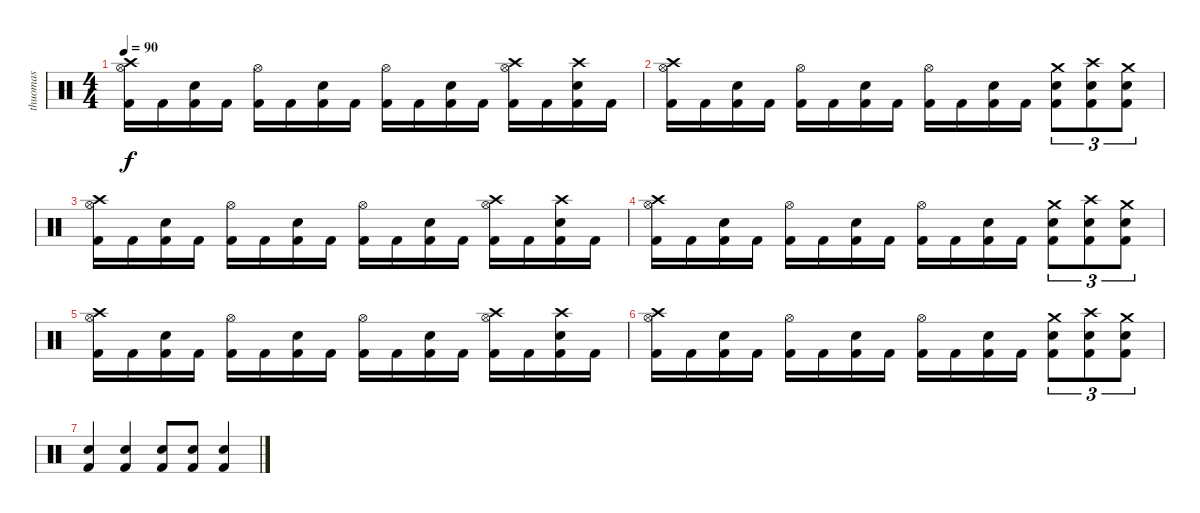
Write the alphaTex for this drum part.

\track ("thuomas" "thuomas") {instrument percussion}
\staff {score}
\articulation defaults
\ts (4 4)
\tempo 90
\clef neutral
\ks c
("Crash high (hit)" "Hi-Hat (open)" "Kick (hit) 2").16{dy f} "Kick (hit) 2".16 ("Snare (hit) 2" "Kick (hit) 2").16 "Kick (hit) 2".16 ("Hi-Hat (open)" "Kick (hit) 2").16 "Kick (hit) 2".16 ("Snare (hit) 2" "Kick (hit) 2").16 "Kick (hit) 2".16 ("Hi-Hat (open)" "Kick (hit) 2").16 "Kick (hit) 2".16 ("Snare (hit) 2" "Kick (hit) 2").16 "Kick (hit) 2".16 ("Crash high (hit)" "Hi-Hat (open)" "Kick (hit) 2").16 "Kick (hit) 2".16 ("Crash high (hit)" "Snare (hit) 2" "Kick (hit) 2").16 "Kick (hit) 2".16 |
("Crash high (hit)" "Hi-Hat (open)" "Kick (hit) 2").16 "Kick (hit) 2".16 ("Snare (hit) 2" "Kick (hit) 2").16 "Kick (hit) 2".16 ("Hi-Hat (open)" "Kick (hit) 2").16 "Kick (hit) 2".16 ("Snare (hit) 2" "Kick (hit) 2").16 "Kick (hit) 2".16 ("Hi-Hat (open)" "Kick (hit) 2").16 "Kick (hit) 2".16 ("Snare (hit) 2" "Kick (hit) 2").16 "Kick (hit) 2".16 ("Crash medium (hit)" "Snare (hit) 2" "Kick (hit) 2").8{tu (3 2)} ("Crash high (hit)" "Snare (hit) 2" "Kick (hit) 2").8{tu (3 2)} ("Crash medium (hit)" "Snare (hit) 2" "Kick (hit) 2").8{tu (3 2)} |
("Crash high (hit)" "Hi-Hat (open)" "Kick (hit) 2").16 "Kick (hit) 2".16 ("Snare (hit) 2" "Kick (hit) 2").16 "Kick (hit) 2".16 ("Hi-Hat (open)" "Kick (hit) 2").16 "Kick (hit) 2".16 ("Snare (hit) 2" "Kick (hit) 2").16 "Kick (hit) 2".16 ("Hi-Hat (open)" "Kick (hit) 2").16 "Kick (hit) 2".16 ("Snare (hit) 2" "Kick (hit) 2").16 "Kick (hit) 2".16 ("Crash high (hit)" "Hi-Hat (open)" "Kick (hit) 2").16 "Kick (hit) 2".16 ("Crash high (hit)" "Snare (hit) 2" "Kick (hit) 2").16 "Kick (hit) 2".16 |
("Crash high (hit)" "Hi-Hat (open)" "Kick (hit) 2").16 "Kick (hit) 2".16 ("Snare (hit) 2" "Kick (hit) 2").16 "Kick (hit) 2".16 ("Hi-Hat (open)" "Kick (hit) 2").16 "Kick (hit) 2".16 ("Snare (hit) 2" "Kick (hit) 2").16 "Kick (hit) 2".16 ("Hi-Hat (open)" "Kick (hit) 2").16 "Kick (hit) 2".16 ("Snare (hit) 2" "Kick (hit) 2").16 "Kick (hit) 2".16 ("Crash medium (hit)" "Snare (hit) 2" "Kick (hit) 2").8{tu (3 2)} ("Crash high (hit)" "Snare (hit) 2" "Kick (hit) 2").8{tu (3 2)} ("Crash medium (hit)" "Snare (hit) 2" "Kick (hit) 2").8{tu (3 2)} |
("Crash high (hit)" "Hi-Hat (open)" "Kick (hit) 2").16 "Kick (hit) 2".16 ("Snare (hit) 2" "Kick (hit) 2").16 "Kick (hit) 2".16 ("Hi-Hat (open)" "Kick (hit) 2").16 "Kick (hit) 2".16 ("Snare (hit) 2" "Kick (hit) 2").16 "Kick (hit) 2".16 ("Hi-Hat (open)" "Kick (hit) 2").16 "Kick (hit) 2".16 ("Snare (hit) 2" "Kick (hit) 2").16 "Kick (hit) 2".16 ("Crash high (hit)" "Hi-Hat (open)" "Kick (hit) 2").16 "Kick (hit) 2".16 ("Crash high (hit)" "Snare (hit) 2" "Kick (hit) 2").16 "Kick (hit) 2".16 |
("Crash high (hit)" "Hi-Hat (open)" "Kick (hit) 2").16 "Kick (hit) 2".16 ("Snare (hit) 2" "Kick (hit) 2").16 "Kick (hit) 2".16 ("Hi-Hat (open)" "Kick (hit) 2").16 "Kick (hit) 2".16 ("Snare (hit) 2" "Kick (hit) 2").16 "Kick (hit) 2".16 ("Hi-Hat (open)" "Kick (hit) 2").16 "Kick (hit) 2".16 ("Snare (hit) 2" "Kick (hit) 2").16 "Kick (hit) 2".16 ("Crash medium (hit)" "Snare (hit) 2" "Kick (hit) 2").8{tu (3 2)} ("Crash high (hit)" "Snare (hit) 2" "Kick (hit) 2").8{tu (3 2)} ("Crash medium (hit)" "Snare (hit) 2" "Kick (hit) 2").8{tu (3 2)} |
("Snare (hit) 2" "Kick (hit) 2").4 ("Snare (hit) 2" "Kick (hit) 2").4 ("Snare (hit) 2" "Kick (hit) 2").8 ("Snare (hit) 2" "Kick (hit) 2").8 ("Snare (hit) 2" "Kick (hit) 2").4
